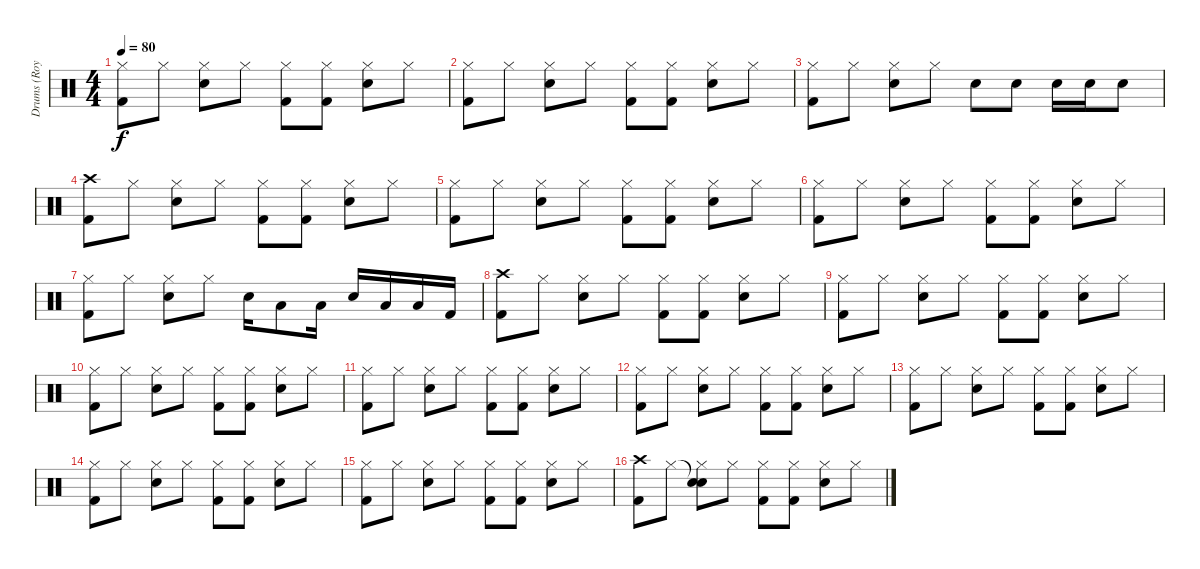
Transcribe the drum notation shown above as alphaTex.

\track ("Drums (Roy Mayorga)" "Drums (Roy") {instrument percussion}
\staff {score}
\articulation defaults
\ts (4 4)
\tempo 80
\clef neutral
\ks c
("Hi-Hat (closed)" "Kick (hit) 2").8{dy f} "Hi-Hat (closed)".8 ("Hi-Hat (closed)" "Snare (hit) 2").8 "Hi-Hat (closed)".8 ("Hi-Hat (closed)" "Kick (hit) 2").8 ("Hi-Hat (closed)" "Kick (hit) 2").8 ("Hi-Hat (closed)" "Snare (hit) 2").8 "Hi-Hat (closed)".8 |
("Hi-Hat (closed)" "Kick (hit) 2").8 "Hi-Hat (closed)".8 ("Hi-Hat (closed)" "Snare (hit) 2").8 "Hi-Hat (closed)".8 ("Hi-Hat (closed)" "Kick (hit) 2").8 ("Hi-Hat (closed)" "Kick (hit) 2").8 ("Hi-Hat (closed)" "Snare (hit) 2").8 "Hi-Hat (closed)".8 |
("Hi-Hat (closed)" "Kick (hit) 2").8 "Hi-Hat (closed)".8 ("Hi-Hat (closed)" "Snare (hit) 2").8 "Hi-Hat (closed)".8 "Snare (hit) 2".8 "Snare (hit) 2".8 "Snare (hit) 2".16 "Snare (hit) 2".16 "Snare (hit) 2".8 |
("Crash high (hit)" "Kick (hit) 2").8 "Hi-Hat (closed)".8 ("Hi-Hat (closed)" "Snare (hit) 2").8 "Hi-Hat (closed)".8 ("Hi-Hat (closed)" "Kick (hit) 2").8 ("Hi-Hat (closed)" "Kick (hit) 2").8 ("Hi-Hat (closed)" "Snare (hit) 2").8 "Hi-Hat (closed)".8 |
("Hi-Hat (closed)" "Kick (hit) 2").8 "Hi-Hat (closed)".8 ("Hi-Hat (closed)" "Snare (hit) 2").8 "Hi-Hat (closed)".8 ("Hi-Hat (closed)" "Kick (hit) 2").8 ("Hi-Hat (closed)" "Kick (hit) 2").8 ("Hi-Hat (closed)" "Snare (hit) 2").8 "Hi-Hat (closed)".8 |
("Hi-Hat (closed)" "Kick (hit) 2").8 "Hi-Hat (closed)".8 ("Hi-Hat (closed)" "Snare (hit) 2").8 "Hi-Hat (closed)".8 ("Hi-Hat (closed)" "Kick (hit) 2").8 ("Hi-Hat (closed)" "Kick (hit) 2").8 ("Hi-Hat (closed)" "Snare (hit) 2").8 "Hi-Hat (closed)".8 |
("Hi-Hat (closed)" "Kick (hit) 2").8 "Hi-Hat (closed)".8 ("Hi-Hat (closed)" "Snare (hit) 2").8 "Hi-Hat (closed)".8 "Snare (hit) 2".16 "Low Tom (hit)".8 "Low Tom (hit)".16 "Snare (hit) 2".16 "Low Tom (hit)".16 "Low Floor Tom (hit)".16 "Kick (hit) 2".16 |
("Crash high (hit)" "Kick (hit) 2").8 "Hi-Hat (closed)".8 ("Hi-Hat (closed)" "Snare (hit) 2").8 "Hi-Hat (closed)".8 ("Hi-Hat (closed)" "Kick (hit) 2").8 ("Hi-Hat (closed)" "Kick (hit) 2").8 ("Hi-Hat (closed)" "Snare (hit) 2").8 "Hi-Hat (closed)".8 |
("Hi-Hat (closed)" "Kick (hit) 2").8 "Hi-Hat (closed)".8 ("Hi-Hat (closed)" "Snare (hit) 2").8 "Hi-Hat (closed)".8 ("Hi-Hat (closed)" "Kick (hit) 2").8 ("Hi-Hat (closed)" "Kick (hit) 2").8 ("Hi-Hat (closed)" "Snare (hit) 2").8 "Hi-Hat (closed)".8 |
("Hi-Hat (closed)" "Kick (hit) 2").8 "Hi-Hat (closed)".8 ("Hi-Hat (closed)" "Snare (hit) 2").8 "Hi-Hat (closed)".8 ("Hi-Hat (closed)" "Kick (hit) 2").8 ("Hi-Hat (closed)" "Kick (hit) 2").8 ("Hi-Hat (closed)" "Snare (hit) 2").8 "Hi-Hat (closed)".8 |
("Hi-Hat (closed)" "Kick (hit) 2").8 "Hi-Hat (closed)".8 ("Hi-Hat (closed)" "Snare (hit) 2").8 "Hi-Hat (closed)".8 ("Hi-Hat (closed)" "Kick (hit) 2").8 ("Hi-Hat (closed)" "Kick (hit) 2").8 ("Hi-Hat (closed)" "Snare (hit) 2").8 "Hi-Hat (closed)".8 |
("Hi-Hat (closed)" "Kick (hit) 2").8 "Hi-Hat (closed)".8 ("Hi-Hat (closed)" "Snare (hit) 2").8 "Hi-Hat (closed)".8 ("Hi-Hat (closed)" "Kick (hit) 2").8 ("Hi-Hat (closed)" "Kick (hit) 2").8 ("Hi-Hat (closed)" "Snare (hit) 2").8 "Hi-Hat (closed)".8 |
("Hi-Hat (closed)" "Kick (hit) 2").8 "Hi-Hat (closed)".8 ("Hi-Hat (closed)" "Snare (hit) 2").8 "Hi-Hat (closed)".8 ("Hi-Hat (closed)" "Kick (hit) 2").8 ("Hi-Hat (closed)" "Kick (hit) 2").8 ("Hi-Hat (closed)" "Snare (hit) 2").8 "Hi-Hat (closed)".8 |
("Hi-Hat (closed)" "Kick (hit) 2").8 "Hi-Hat (closed)".8 ("Hi-Hat (closed)" "Snare (hit) 2").8 "Hi-Hat (closed)".8 ("Hi-Hat (closed)" "Kick (hit) 2").8 ("Hi-Hat (closed)" "Kick (hit) 2").8 ("Hi-Hat (closed)" "Snare (hit) 2").8 "Hi-Hat (closed)".8 |
("Hi-Hat (closed)" "Kick (hit) 2").8 "Hi-Hat (closed)".8 ("Hi-Hat (closed)" "Snare (hit) 2").8 "Hi-Hat (closed)".8 ("Hi-Hat (closed)" "Kick (hit) 2").8 ("Hi-Hat (closed)" "Kick (hit) 2").8 ("Hi-Hat (closed)" "Snare (hit) 2").8 "Hi-Hat (closed)".8 |
("Crash high (hit)" "Kick (hit) 2").8 "Hi-Hat (closed)".8 ("Snare (hit)"{t} "Hi-Hat (closed)" "Snare (hit) 2").8 "Hi-Hat (closed)".8 ("Hi-Hat (closed)" "Kick (hit) 2").8 ("Hi-Hat (closed)" "Kick (hit) 2").8 ("Hi-Hat (closed)" "Snare (hit) 2").8 "Hi-Hat (closed)".8
